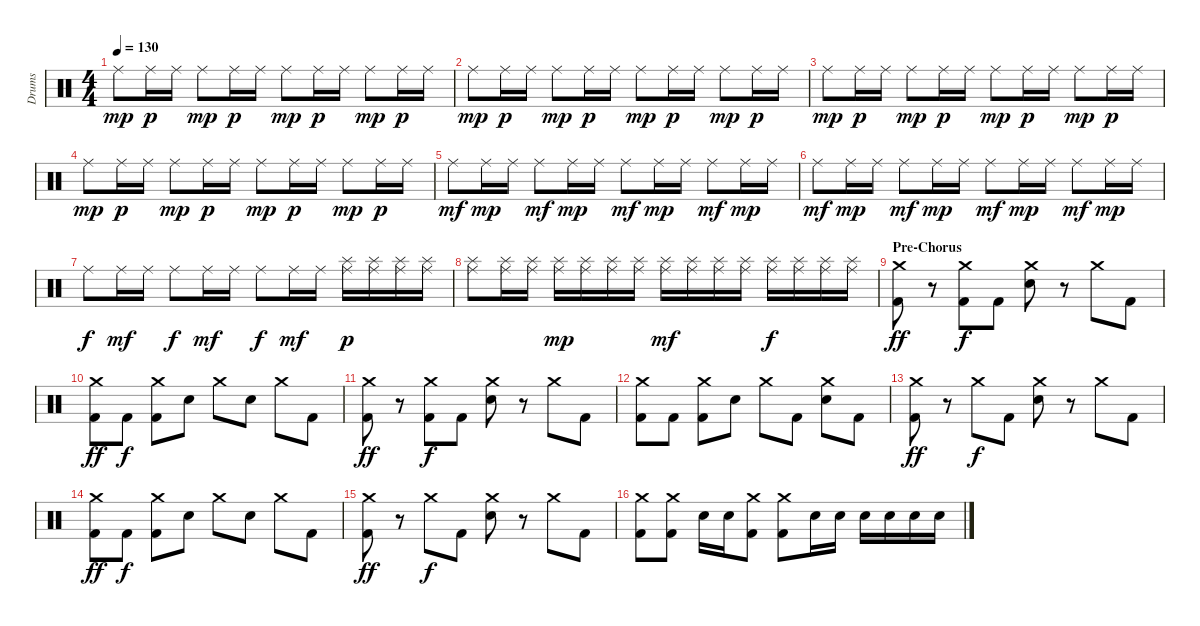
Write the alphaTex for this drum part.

\track ("Drums" "Drums") {instrument percussion}
\staff {score}
\articulation defaults
\ts (4 4)
\tempo 130
\clef neutral
\ks c "Ride (middle)".8{dy mp} "Ride (middle)".16{dy p} "Ride (middle)".16 "Ride (middle)".8{dy mp} "Ride (middle)".16{dy p} "Ride (middle)".16 "Ride (middle)".8{dy mp} "Ride (middle)".16{dy p} "Ride (middle)".16 "Ride (middle)".8{dy mp} "Ride (middle)".16{dy p} "Ride (middle)".16
|
"Ride (middle)".8{dy mp} "Ride (middle)".16{dy p} "Ride (middle)".16 "Ride (middle)".8{dy mp} "Ride (middle)".16{dy p} "Ride (middle)".16 "Ride (middle)".8{dy mp} "Ride (middle)".16{dy p} "Ride (middle)".16 "Ride (middle)".8{dy mp} "Ride (middle)".16{dy p} "Ride (middle)".16 |
"Ride (middle)".8{dy mp} "Ride (middle)".16{dy p} "Ride (middle)".16 "Ride (middle)".8{dy mp} "Ride (middle)".16{dy p} "Ride (middle)".16 "Ride (middle)".8{dy mp} "Ride (middle)".16{dy p} "Ride (middle)".16 "Ride (middle)".8{dy mp} "Ride (middle)".16{dy p} "Ride (middle)".16 |
"Ride (middle)".8{dy mp} "Ride (middle)".16{dy p} "Ride (middle)".16 "Ride (middle)".8{dy mp} "Ride (middle)".16{dy p} "Ride (middle)".16 "Ride (middle)".8{dy mp} "Ride (middle)".16{dy p} "Ride (middle)".16 "Ride (middle)".8{dy mp} "Ride (middle)".16{dy p} "Ride (middle)".16 |
"Ride (middle)".8{dy mf} "Ride (middle)".16{dy mp} "Ride (middle)".16 "Ride (middle)".8{dy mf} "Ride (middle)".16{dy mp} "Ride (middle)".16 "Ride (middle)".8{dy mf} "Ride (middle)".16{dy mp} "Ride (middle)".16 "Ride (middle)".8{dy mf} "Ride (middle)".16{dy mp} "Ride (middle)".16 |
"Ride (middle)".8{dy mf} "Ride (middle)".16{dy mp} "Ride (middle)".16 "Ride (middle)".8{dy mf} "Ride (middle)".16{dy mp} "Ride (middle)".16 "Ride (middle)".8{dy mf} "Ride (middle)".16{dy mp} "Ride (middle)".16 "Ride (middle)".8{dy mf} "Ride (middle)".16{dy mp} "Ride (middle)".16 |
"Ride (middle)".8{dy f} "Ride (middle)".16{dy mf} "Ride (middle)".16 "Ride (middle)".8{dy f} "Ride (middle)".16{dy mf} "Ride (middle)".16 "Ride (middle)".8{dy f} "Ride (middle)".16{dy mf} "Ride (middle)".16 ("Ride (middle)" "Splash (hit)").16{dy p} ("Ride (middle)" "Splash (hit)").16 ("Ride (middle)" "Splash (hit)").16 ("Ride (middle)" "Splash (hit)").16 |
("Ride (middle)" "Splash (hit)").8 ("Ride (middle)" "Splash (hit)").16 ("Ride (middle)" "Splash (hit)").16 ("Ride (middle)" "Splash (hit)").16{dy mp} ("Ride (middle)" "Splash (hit)").16 ("Ride (middle)" "Splash (hit)").16 ("Ride (middle)" "Splash (hit)").16 ("Ride (middle)" "Splash (hit)").16{dy mf} ("Ride (middle)" "Splash (hit)").16 ("Ride (middle)" "Splash (hit)").16 ("Ride (middle)" "Splash (hit)").16 ("Ride (middle)" "Splash (hit)").16{dy f} ("Ride (middle)" "Splash (hit)").16 ("Ride (middle)" "Splash (hit)").16 ("Ride (middle)" "Splash (hit)").16 |
\section ("" "Pre-Chorus")
("Crash medium (hit)" "Kick (hit) 2").8{dy ff} r.8 ("Crash medium (hit)" "Kick (hit) 2").8{dy f} "Kick (hit) 2".8 ("Crash medium (hit)" "Electric Snare (hit)").8 r.8 "Crash medium (hit)".8 "Kick (hit) 2".8 |
("Crash medium (hit)" "Kick (hit) 2").8{dy ff} "Kick (hit) 2".8{dy f} ("Crash medium (hit)" "Kick (hit) 2").8 "Electric Snare (hit)".8 "Crash medium (hit)".8 "Electric Snare (hit)".8 "Crash medium (hit)".8 "Kick (hit) 2".8 |
("Crash medium (hit)" "Kick (hit) 2").8{dy ff} r.8 ("Crash medium (hit)" "Kick (hit) 2").8{dy f} "Kick (hit) 2".8 ("Crash medium (hit)" "Electric Snare (hit)").8 r.8 "Crash medium (hit)".8 "Kick (hit) 2".8 |
("Crash medium (hit)" "Kick (hit) 2").8 "Kick (hit) 2".8 ("Crash medium (hit)" "Kick (hit) 2").8 "Electric Snare (hit)".8 "Crash medium (hit)".8 "Kick (hit) 2".8 ("Crash medium (hit)" "Electric Snare (hit)").8 "Kick (hit) 2".8 |
("Crash medium (hit)" "Kick (hit) 2").8{dy ff} r.8 "Crash medium (hit)".8{dy f} "Kick (hit) 2".8 ("Crash medium (hit)" "Electric Snare (hit)").8 r.8 "Crash medium (hit)".8 "Kick (hit) 2".8 |
("Crash medium (hit)" "Kick (hit) 2").8{dy ff} "Kick (hit) 2".8{dy f} ("Crash medium (hit)" "Kick (hit) 2").8 "Electric Snare (hit)".8 "Crash medium (hit)".8 "Electric Snare (hit)".8 "Crash medium (hit)".8 "Kick (hit) 2".8 |
("Crash medium (hit)" "Kick (hit) 2").8{dy ff} r.8 "Crash medium (hit)".8{dy f} "Kick (hit) 2".8 ("Crash medium (hit)" "Electric Snare (hit)").8 r.8 "Crash medium (hit)".8 "Kick (hit) 2".8 |
("Crash medium (hit)" "Kick (hit) 2").8 ("Crash medium (hit)" "Kick (hit) 2").8 "Electric Snare (hit)".16 "Electric Snare (hit)".16 ("Crash medium (hit)" "Kick (hit) 2").8 ("Crash medium (hit)" "Kick (hit) 2").8 "Electric Snare (hit)".16 "Electric Snare (hit)".16 "Electric Snare (hit)".16 "Electric Snare (hit)".16 "Electric Snare (hit)".16 "Electric Snare (hit)".16
